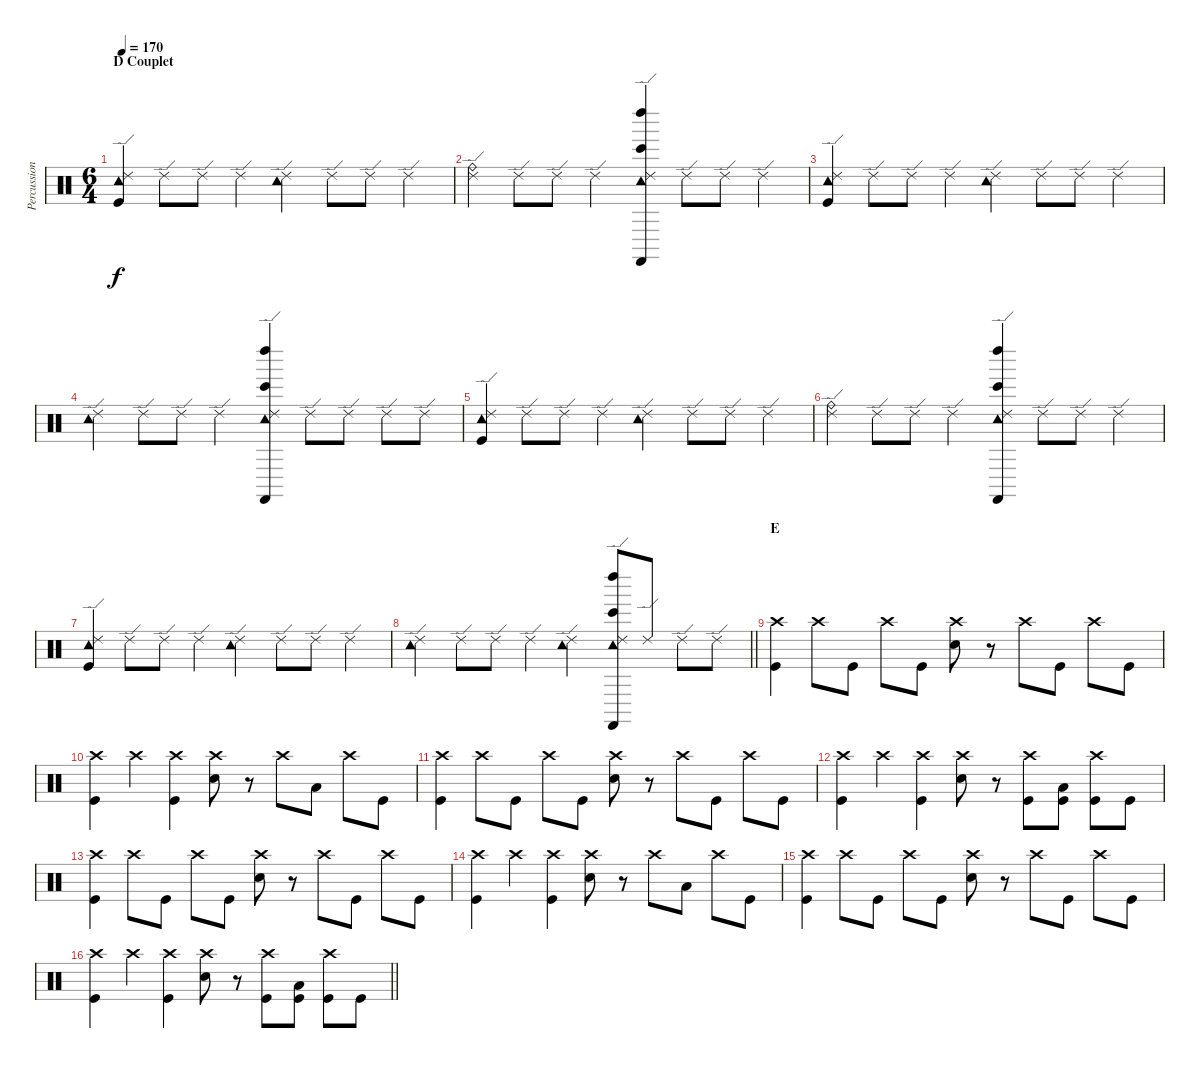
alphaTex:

\track ("Percussions" "Percussion") {instrument percussion}
\staff {score}
\articulation defaults
\ts (6 4)
\section ("" "D Couplet")
\tempo 170
\clef neutral
\ks c
("Tambourine (hit)" "Ride (edge) 2" "Kick (hit)").4{dy f} "Ride (edge) 2".8 "Ride (edge) 2".8 "Ride (edge) 2".4 ("Tambourine (hit)" "Ride (edge) 2").4 "Ride (edge) 2".8 "Ride (edge) 2".8 "Ride (edge) 2".4 |
("Ride (bell)" "Ride (edge) 2").4 "Ride (edge) 2".8 "Ride (edge) 2".8 "Ride (edge) 2".4 ("Bongo High (hit)" "Left Maraca (hit)" "Ride (edge) 2" "Tambourine (hit)" "Castanets (hit)").4 "Ride (edge) 2".8 "Ride (edge) 2".8 "Ride (edge) 2".4 |
("Tambourine (hit)" "Ride (edge) 2" "Kick (hit)").4 "Ride (edge) 2".8 "Ride (edge) 2".8 "Ride (edge) 2".4 ("Tambourine (hit)" "Ride (edge) 2").4 "Ride (edge) 2".8 "Ride (edge) 2".8 "Ride (edge) 2".4 |
("Tambourine (hit)" "Ride (edge) 2").4 "Ride (edge) 2".8 "Ride (edge) 2".8 "Ride (edge) 2".4 ("Bongo High (hit)" "Left Maraca (hit)" "Ride (edge) 2" "Tambourine (hit)" "Castanets (hit)").4 "Ride (edge) 2".8 "Ride (edge) 2".8 "Ride (edge) 2".8 "Ride (edge) 2".8 |
("Tambourine (hit)" "Ride (edge) 2" "Kick (hit)").4 "Ride (edge) 2".8 "Ride (edge) 2".8 "Ride (edge) 2".4 ("Tambourine (hit)" "Ride (edge) 2").4 "Ride (edge) 2".8 "Ride (edge) 2".8 "Ride (edge) 2".4 |
("Ride (bell)" "Ride (edge) 2").4 "Ride (edge) 2".8 "Ride (edge) 2".8 "Ride (edge) 2".4 ("Bongo High (hit)" "Left Maraca (hit)" "Ride (edge) 2" "Tambourine (hit)" "Castanets (hit)").4 "Ride (edge) 2".8 "Ride (edge) 2".8 "Ride (edge) 2".4 |
("Tambourine (hit)" "Ride (edge) 2" "Kick (hit)").4 "Ride (edge) 2".8 "Ride (edge) 2".8 "Ride (edge) 2".4 ("Tambourine (hit)" "Ride (edge) 2").4 "Ride (edge) 2".8 "Ride (edge) 2".8 "Ride (edge) 2".4 |
\barLineRight lightlight
("Tambourine (hit)" "Ride (edge) 2").4 "Ride (edge) 2".8 "Ride (edge) 2".8 "Ride (edge) 2".4 ("Tambourine (hit)" "Ride (edge) 2").4 ("Bongo High (hit)" "Left Maraca (hit)" "Ride (edge) 2" "Tambourine (hit)" "Castanets (hit)").8 "Ride (edge) 2".8 "Ride (edge) 2".8 "Ride (edge) 2".8 |
\section ("" "E")
("Crash high (hit)" "Kick (hit)").4 "Crash high (hit)".8 "Kick (hit)".8 "Crash high (hit)".8 "Kick (hit)".8 ("Crash high (hit)" "Snare (hit) 2").8 r.8 "Crash high (hit)".8 "Kick (hit)".8 "Crash high (hit)".8 "Kick (hit)".8 |
("Crash high (hit)" "Kick (hit)").4 "Crash high (hit)".4 ("Crash high (hit)" "Kick (hit)").4 ("Crash high (hit)" "Snare (hit) 2").8 r.8 "Crash high (hit)".8 "Low Tom (hit)".8 "Crash high (hit)".8 "Kick (hit)".8 |
("Crash high (hit)" "Kick (hit)").4 "Crash high (hit)".8 "Kick (hit)".8 "Crash high (hit)".8 "Kick (hit)".8 ("Crash high (hit)" "Snare (hit) 2").8 r.8 "Crash high (hit)".8 "Kick (hit)".8 "Crash high (hit)".8 "Kick (hit)".8 |
("Crash high (hit)" "Kick (hit)").4 "Crash high (hit)".4 ("Crash high (hit)" "Kick (hit)").4 ("Crash high (hit)" "Snare (hit) 2").8 r.8 ("Crash high (hit)" "Kick (hit)").8 ("Low Tom (hit)" "Kick (hit)").8 ("Crash high (hit)" "Kick (hit)").8 "Kick (hit)".8 |
("Crash high (hit)" "Kick (hit)").4 "Crash high (hit)".8 "Kick (hit)".8 "Crash high (hit)".8 "Kick (hit)".8 ("Crash high (hit)" "Snare (hit) 2").8 r.8 "Crash high (hit)".8 "Kick (hit)".8 "Crash high (hit)".8 "Kick (hit)".8 |
("Crash high (hit)" "Kick (hit)").4 "Crash high (hit)".4 ("Crash high (hit)" "Kick (hit)").4 ("Crash high (hit)" "Snare (hit) 2").8 r.8 "Crash high (hit)".8 "Low Tom (hit)".8 "Crash high (hit)".8 "Kick (hit)".8 |
("Crash high (hit)" "Kick (hit)").4 "Crash high (hit)".8 "Kick (hit)".8 "Crash high (hit)".8 "Kick (hit)".8 ("Crash high (hit)" "Snare (hit) 2").8 r.8 "Crash high (hit)".8 "Kick (hit)".8 "Crash high (hit)".8 "Kick (hit)".8 |
\barLineRight lightlight
("Crash high (hit)" "Kick (hit)").4 "Crash high (hit)".4 ("Crash high (hit)" "Kick (hit)").4 ("Crash high (hit)" "Snare (hit) 2").8 r.8 ("Crash high (hit)" "Kick (hit)").8 ("Low Tom (hit)" "Kick (hit)").8 ("Crash high (hit)" "Kick (hit)").8 "Kick (hit)".8
